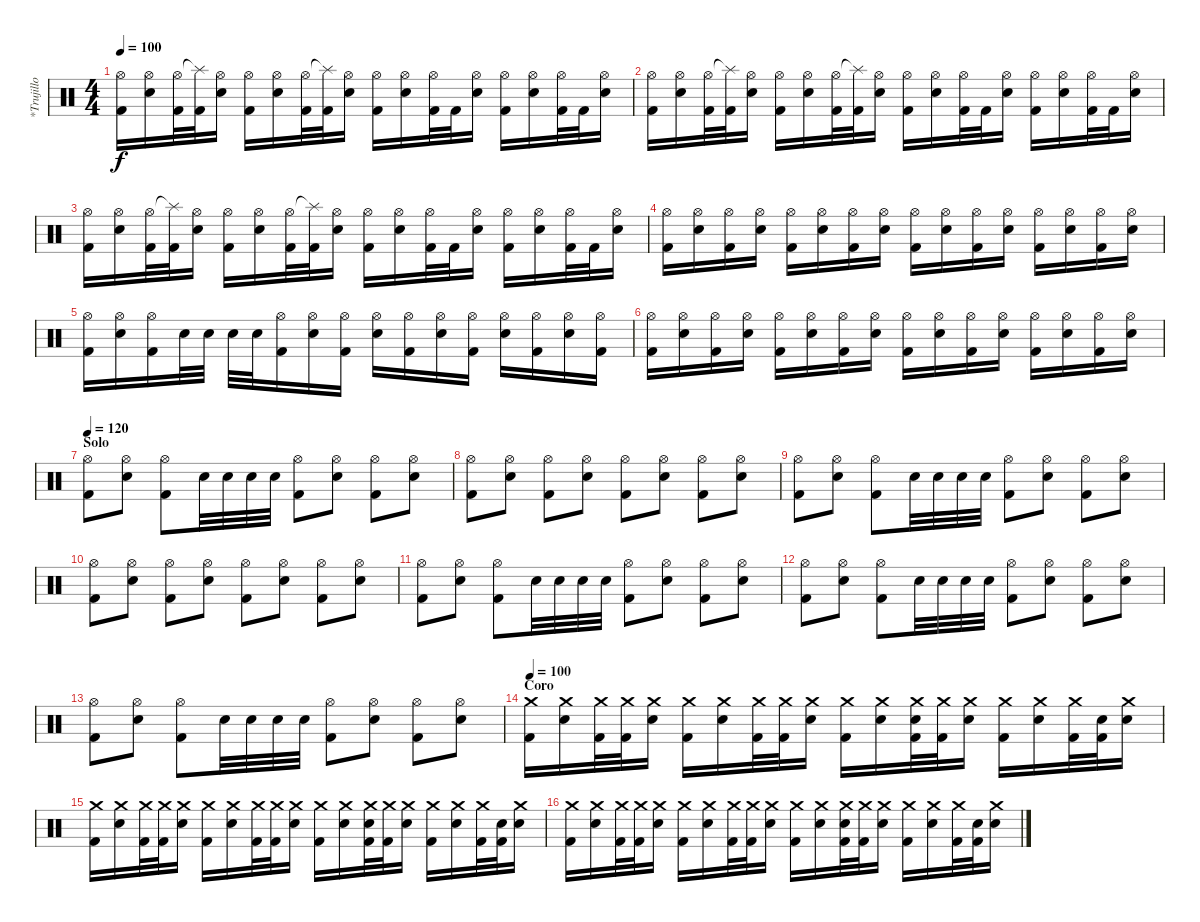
\track ("*Trujillo" "*Trujillo") {instrument percussion}
\staff {score}
\articulation defaults
\ts (4 4)
\tempo 100
\clef neutral
\ks c
("Hi-Hat (open)" "Kick (hit) 2").16{dy f} ("Hi-Hat (open)" "Electric Snare (hit)").16 ("Hi-Hat (open)" "Kick (hit) 2").32 ("Splash (hit)"{t} "Kick (hit) 2").32 ("Hi-Hat (open)" "Electric Snare (hit)").16 ("Hi-Hat (open)" "Kick (hit) 2").16 ("Hi-Hat (open)" "Electric Snare (hit)").16 ("Hi-Hat (open)" "Kick (hit) 2").32 ("Splash (hit)"{t} "Kick (hit) 2").32 ("Hi-Hat (open)" "Electric Snare (hit)").16 ("Hi-Hat (open)" "Kick (hit) 2").16 ("Hi-Hat (open)" "Electric Snare (hit)").16 ("Hi-Hat (open)" "Kick (hit) 2").32 "Kick (hit) 2".32 ("Hi-Hat (open)" "Electric Snare (hit)").16 ("Kick (hit) 2" "Hi-Hat (open)").16 ("Hi-Hat (open)" "Electric Snare (hit)").16 ("Hi-Hat (open)" "Kick (hit) 2").32 "Kick (hit) 2".32 ("Hi-Hat (open)" "Electric Snare (hit)").16 |
("Hi-Hat (open)" "Kick (hit) 2").16 ("Hi-Hat (open)" "Electric Snare (hit)").16 ("Hi-Hat (open)" "Kick (hit) 2").32 ("Splash (hit)"{t} "Kick (hit) 2").32 ("Hi-Hat (open)" "Electric Snare (hit)").16 ("Hi-Hat (open)" "Kick (hit) 2").16 ("Hi-Hat (open)" "Electric Snare (hit)").16 ("Hi-Hat (open)" "Kick (hit) 2").32 ("Splash (hit)"{t} "Kick (hit) 2").32 ("Hi-Hat (open)" "Electric Snare (hit)").16 ("Hi-Hat (open)" "Kick (hit) 2").16 ("Hi-Hat (open)" "Electric Snare (hit)").16 ("Hi-Hat (open)" "Kick (hit) 2").32 "Kick (hit) 2".32 ("Hi-Hat (open)" "Electric Snare (hit)").16 ("Kick (hit) 2" "Hi-Hat (open)").16 ("Hi-Hat (open)" "Electric Snare (hit)").16 ("Hi-Hat (open)" "Kick (hit) 2").32 "Kick (hit) 2".32 ("Hi-Hat (open)" "Electric Snare (hit)").16 |
("Hi-Hat (open)" "Kick (hit) 2").16 ("Hi-Hat (open)" "Electric Snare (hit)").16 ("Hi-Hat (open)" "Kick (hit) 2").32 ("Splash (hit)"{t} "Kick (hit) 2").32 ("Hi-Hat (open)" "Electric Snare (hit)").16 ("Hi-Hat (open)" "Kick (hit) 2").16 ("Hi-Hat (open)" "Electric Snare (hit)").16 ("Hi-Hat (open)" "Kick (hit) 2").32 ("Splash (hit)"{t} "Kick (hit) 2").32 ("Hi-Hat (open)" "Electric Snare (hit)").16 ("Hi-Hat (open)" "Kick (hit) 2").16 ("Hi-Hat (open)" "Electric Snare (hit)").16 ("Hi-Hat (open)" "Kick (hit) 2").32 "Kick (hit) 2".32 ("Hi-Hat (open)" "Electric Snare (hit)").16 ("Kick (hit) 2" "Hi-Hat (open)").16 ("Hi-Hat (open)" "Electric Snare (hit)").16 ("Hi-Hat (open)" "Kick (hit) 2").32 "Kick (hit) 2".32 ("Hi-Hat (open)" "Electric Snare (hit)").16 |
("Hi-Hat (open)" "Kick (hit) 2").16 ("Hi-Hat (open)" "Electric Snare (hit)").16 ("Hi-Hat (open)" "Kick (hit) 2").16 ("Hi-Hat (open)" "Electric Snare (hit)").16 ("Hi-Hat (open)" "Kick (hit) 2").16 ("Hi-Hat (open)" "Electric Snare (hit)").16 ("Hi-Hat (open)" "Kick (hit) 2").16 ("Hi-Hat (open)" "Electric Snare (hit)").16 ("Hi-Hat (open)" "Kick (hit) 2").16 ("Hi-Hat (open)" "Electric Snare (hit)").16 ("Hi-Hat (open)" "Kick (hit) 2").16 ("Hi-Hat (open)" "Electric Snare (hit)").16 ("Hi-Hat (open)" "Kick (hit) 2").16 ("Hi-Hat (open)" "Electric Snare (hit)").16 ("Hi-Hat (open)" "Kick (hit) 2").16 ("Hi-Hat (open)" "Electric Snare (hit)").16 |
("Hi-Hat (open)" "Kick (hit) 2").16 ("Hi-Hat (open)" "Electric Snare (hit)").16 ("Hi-Hat (open)" "Kick (hit) 2").16 "Electric Snare (hit)".32 "Electric Snare (hit)".32 "Electric Snare (hit)".32 "Electric Snare (hit)".32 ("Hi-Hat (open)" "Kick (hit) 2").16 ("Hi-Hat (open)" "Electric Snare (hit)").16 ("Hi-Hat (open)" "Kick (hit) 2").16 ("Hi-Hat (open)" "Electric Snare (hit)").16 ("Hi-Hat (open)" "Kick (hit) 2").16 ("Hi-Hat (open)" "Electric Snare (hit)").16 ("Hi-Hat (open)" "Kick (hit) 2").16 ("Hi-Hat (open)" "Electric Snare (hit)").16 ("Hi-Hat (open)" "Kick (hit) 2").16 ("Hi-Hat (open)" "Electric Snare (hit)").16 ("Hi-Hat (open)" "Kick (hit) 2").16 |
("Hi-Hat (open)" "Kick (hit) 2").16 ("Hi-Hat (open)" "Electric Snare (hit)").16 ("Hi-Hat (open)" "Kick (hit) 2").16 ("Hi-Hat (open)" "Electric Snare (hit)").16 ("Hi-Hat (open)" "Kick (hit) 2").16 ("Hi-Hat (open)" "Electric Snare (hit)").16 ("Hi-Hat (open)" "Kick (hit) 2").16 ("Hi-Hat (open)" "Electric Snare (hit)").16 ("Hi-Hat (open)" "Kick (hit) 2").16 ("Hi-Hat (open)" "Electric Snare (hit)").16 ("Hi-Hat (open)" "Kick (hit) 2").16 ("Hi-Hat (open)" "Electric Snare (hit)").16 ("Hi-Hat (open)" "Kick (hit) 2").16 ("Hi-Hat (open)" "Electric Snare (hit)").16 ("Hi-Hat (open)" "Kick (hit) 2").16 ("Hi-Hat (open)" "Electric Snare (hit)").16 |
\section ("" "Solo")
\tempo 120
("Hi-Hat (open)" "Kick (hit) 2").8 ("Hi-Hat (open)" "Electric Snare (hit)").8 ("Hi-Hat (open)" "Kick (hit) 2").8 "Electric Snare (hit)".32 "Electric Snare (hit)".32 "Electric Snare (hit)".32 "Electric Snare (hit)".32 ("Hi-Hat (open)" "Kick (hit) 2").8 ("Hi-Hat (open)" "Electric Snare (hit)").8 ("Hi-Hat (open)" "Kick (hit) 2").8 ("Hi-Hat (open)" "Electric Snare (hit)").8 |
("Hi-Hat (open)" "Kick (hit) 2").8 ("Hi-Hat (open)" "Electric Snare (hit)").8 ("Hi-Hat (open)" "Kick (hit) 2").8 ("Hi-Hat (open)" "Electric Snare (hit)").8 ("Hi-Hat (open)" "Kick (hit) 2").8 ("Hi-Hat (open)" "Electric Snare (hit)").8 ("Hi-Hat (open)" "Kick (hit) 2").8 ("Hi-Hat (open)" "Electric Snare (hit)").8 |
("Hi-Hat (open)" "Kick (hit) 2").8 ("Hi-Hat (open)" "Electric Snare (hit)").8 ("Hi-Hat (open)" "Kick (hit) 2").8 "Electric Snare (hit)".32 "Electric Snare (hit)".32 "Electric Snare (hit)".32 "Electric Snare (hit)".32 ("Hi-Hat (open)" "Kick (hit) 2").8 ("Hi-Hat (open)" "Electric Snare (hit)").8 ("Hi-Hat (open)" "Kick (hit) 2").8 ("Hi-Hat (open)" "Electric Snare (hit)").8 |
("Hi-Hat (open)" "Kick (hit) 2").8 ("Hi-Hat (open)" "Electric Snare (hit)").8 ("Hi-Hat (open)" "Kick (hit) 2").8 ("Hi-Hat (open)" "Electric Snare (hit)").8 ("Hi-Hat (open)" "Kick (hit) 2").8 ("Hi-Hat (open)" "Electric Snare (hit)").8 ("Hi-Hat (open)" "Kick (hit) 2").8 ("Hi-Hat (open)" "Electric Snare (hit)").8 |
("Hi-Hat (open)" "Kick (hit) 2").8 ("Hi-Hat (open)" "Electric Snare (hit)").8 ("Hi-Hat (open)" "Kick (hit) 2").8 "Electric Snare (hit)".32 "Electric Snare (hit)".32 "Electric Snare (hit)".32 "Electric Snare (hit)".32 ("Hi-Hat (open)" "Kick (hit) 2").8 ("Hi-Hat (open)" "Electric Snare (hit)").8 ("Hi-Hat (open)" "Kick (hit) 2").8 ("Hi-Hat (open)" "Electric Snare (hit)").8 |
("Hi-Hat (open)" "Kick (hit) 2").8 ("Hi-Hat (open)" "Electric Snare (hit)").8 ("Hi-Hat (open)" "Kick (hit) 2").8 "Electric Snare (hit)".32 "Electric Snare (hit)".32 "Electric Snare (hit)".32 "Electric Snare (hit)".32 ("Hi-Hat (open)" "Kick (hit) 2").8 ("Hi-Hat (open)" "Electric Snare (hit)").8 ("Hi-Hat (open)" "Kick (hit) 2").8 ("Hi-Hat (open)" "Electric Snare (hit)").8 |
("Hi-Hat (open)" "Kick (hit) 2").8 ("Hi-Hat (open)" "Electric Snare (hit)").8 ("Hi-Hat (open)" "Kick (hit) 2").8 "Electric Snare (hit)".32 "Electric Snare (hit)".32 "Electric Snare (hit)".32 "Electric Snare (hit)".32 ("Hi-Hat (open)" "Kick (hit) 2").8 ("Hi-Hat (open)" "Electric Snare (hit)").8 ("Hi-Hat (open)" "Kick (hit) 2").8 ("Hi-Hat (open)" "Electric Snare (hit)").8 |
\section ("" "Coro")
\tempo 100
("Crash medium (hit)"{x} "Kick (hit) 2").16 ("Crash medium (hit)" "Electric Snare (hit)").16 ("Crash medium (hit)"{x} "Kick (hit) 2").32 ("Crash medium (hit)"{x} "Kick (hit) 2").32 ("Crash medium (hit)" "Electric Snare (hit)").16 ("Crash medium (hit)"{x} "Kick (hit) 2").16 ("Crash medium (hit)" "Electric Snare (hit)").16 ("Crash medium (hit)"{x} "Kick (hit) 2").32 ("Crash medium (hit)"{x} "Kick (hit) 2").32 ("Crash medium (hit)" "Electric Snare (hit)").16 ("Crash medium (hit)"{x} "Kick (hit) 2").16 ("Crash medium (hit)" "Electric Snare (hit)").16 ("Snare (hit)"{x} "Crash medium (hit)"{x} "Kick (hit) 2").32 ("Crash medium (hit)"{x} "Kick (hit) 2").32 ("Crash medium (hit)" "Electric Snare (hit)").16 ("Crash medium (hit)"{x} "Kick (hit) 2").16 ("Crash medium (hit)" "Electric Snare (hit)").16 ("Crash medium (hit)"{x} "Kick (hit) 2").32 ("Snare (hit)"{x} "Kick (hit) 2").32 ("Crash medium (hit)" "Electric Snare (hit)").16 |
("Crash medium (hit)"{x} "Kick (hit) 2").16 ("Crash medium (hit)" "Electric Snare (hit)").16 ("Crash medium (hit)"{x} "Kick (hit) 2").32 ("Crash medium (hit)"{x} "Kick (hit) 2").32 ("Crash medium (hit)" "Electric Snare (hit)").16 ("Crash medium (hit)"{x} "Kick (hit) 2").16 ("Crash medium (hit)" "Electric Snare (hit)").16 ("Crash medium (hit)"{x} "Kick (hit) 2").32 ("Crash medium (hit)"{x} "Kick (hit) 2").32 ("Crash medium (hit)" "Electric Snare (hit)").16 ("Crash medium (hit)"{x} "Kick (hit) 2").16 ("Crash medium (hit)" "Electric Snare (hit)").16 ("Snare (hit)"{x} "Crash medium (hit)"{x} "Kick (hit) 2").32 ("Crash medium (hit)"{x} "Kick (hit) 2").32 ("Crash medium (hit)" "Electric Snare (hit)").16 ("Crash medium (hit)"{x} "Kick (hit) 2").16 ("Crash medium (hit)" "Electric Snare (hit)").16 ("Crash medium (hit)"{x} "Kick (hit) 2").32 ("Snare (hit)"{x} "Kick (hit) 2").32 ("Crash medium (hit)" "Electric Snare (hit)").16 |
("Crash medium (hit)"{x} "Kick (hit) 2").16 ("Crash medium (hit)" "Electric Snare (hit)").16 ("Crash medium (hit)"{x} "Kick (hit) 2").32 ("Crash medium (hit)"{x} "Kick (hit) 2").32 ("Crash medium (hit)" "Electric Snare (hit)").16 ("Crash medium (hit)"{x} "Kick (hit) 2").16 ("Crash medium (hit)" "Electric Snare (hit)").16 ("Crash medium (hit)"{x} "Kick (hit) 2").32 ("Crash medium (hit)"{x} "Kick (hit) 2").32 ("Crash medium (hit)" "Electric Snare (hit)").16 ("Crash medium (hit)"{x} "Kick (hit) 2").16 ("Crash medium (hit)" "Electric Snare (hit)").16 ("Snare (hit)"{x} "Crash medium (hit)"{x} "Kick (hit) 2").32 ("Crash medium (hit)"{x} "Kick (hit) 2").32 ("Crash medium (hit)" "Electric Snare (hit)").16 ("Crash medium (hit)"{x} "Kick (hit) 2").16 ("Crash medium (hit)" "Electric Snare (hit)").16 ("Crash medium (hit)"{x} "Kick (hit) 2").32 ("Snare (hit)"{x} "Kick (hit) 2").32 ("Crash medium (hit)" "Electric Snare (hit)").16
